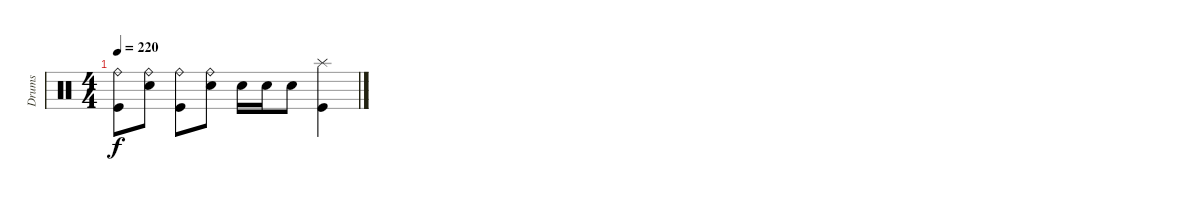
\track ("Drums" "Drums") {instrument percussion}
\staff {score}
\articulation defaults
\ts (4 4)
\tempo 220
\clef neutral
\ks c
("Kick (hit)" "Ride (bell)").8{dy f} ("Electric Snare (hit)" "Ride (bell)").8 ("Kick (hit)" "Ride (bell)").8 ("Electric Snare (hit)" "Ride (bell)").8 "Electric Snare (hit)".16 "Electric Snare (hit)".16 "Electric Snare (hit)".8 ("Kick (hit)" "Splash (hit)").4
